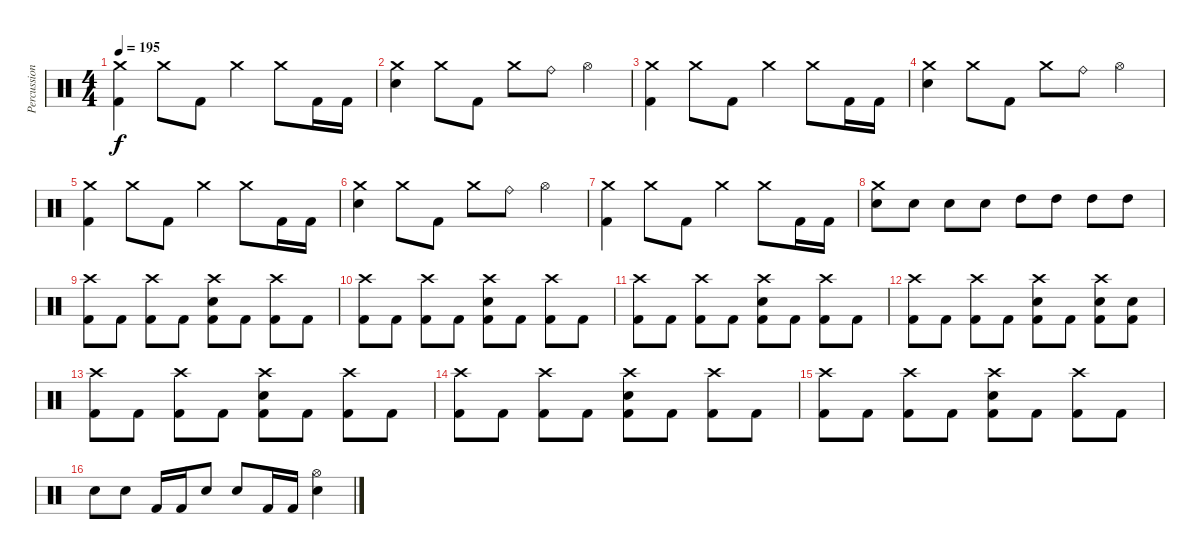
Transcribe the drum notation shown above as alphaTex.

\track ("Percussion" "Percussion") {instrument percussion}
\staff {score}
\articulation defaults
\ts (4 4)
\tempo 195
\clef neutral
\ks c
("Crash medium (hit)" "Kick (hit) 2").4{dy f} "Crash medium (hit)".8 "Kick (hit) 2".8 "Crash medium (hit)".4 "Crash medium (hit)".8 "Kick (hit) 2".16 "Kick (hit) 2".16 |
("Crash medium (hit)" "Electric Snare (hit)").4 "Crash medium (hit)".8 "Kick (hit) 2".8 "Crash medium (hit)".8 "Ride (bell)".8 "Hi-Hat (open)".4 |
("Crash medium (hit)" "Kick (hit) 2").4 "Crash medium (hit)".8 "Kick (hit) 2".8 "Crash medium (hit)".4 "Crash medium (hit)".8 "Kick (hit) 2".16 "Kick (hit) 2".16 |
("Crash medium (hit)" "Electric Snare (hit)").4 "Crash medium (hit)".8 "Kick (hit) 2".8 "Crash medium (hit)".8 "Ride (bell)".8 "Hi-Hat (open)".4 |
("Crash medium (hit)" "Kick (hit) 2").4 "Crash medium (hit)".8 "Kick (hit) 2".8 "Crash medium (hit)".4 "Crash medium (hit)".8 "Kick (hit) 2".16 "Kick (hit) 2".16 |
("Crash medium (hit)" "Electric Snare (hit)").4 "Crash medium (hit)".8 "Kick (hit) 2".8 "Crash medium (hit)".8 "Ride (bell)".8 "Hi-Hat (open)".4 |
("Crash medium (hit)" "Kick (hit) 2").4 "Crash medium (hit)".8 "Kick (hit) 2".8 "Crash medium (hit)".4 "Crash medium (hit)".8 "Kick (hit) 2".16 "Kick (hit) 2".16 |
("Crash medium (hit)" "Electric Snare (hit)").8 "Electric Snare (hit)".8 "Electric Snare (hit)".8 "Electric Snare (hit)".8 "High Tom (hit)".8 "High Tom (hit)".8 "High Tom (hit)".8 "High Tom (hit)".8 |
("Crash high (hit)" "Kick (hit) 2").8 "Kick (hit) 2".8 ("Crash high (hit)" "Kick (hit) 2").8 "Kick (hit) 2".8 ("Crash high (hit)" "Electric Snare (hit)" "Kick (hit) 2").8 "Kick (hit) 2".8 ("Crash high (hit)" "Kick (hit) 2").8 "Kick (hit) 2".8 |
("Crash high (hit)" "Kick (hit) 2").8 "Kick (hit) 2".8 ("Crash high (hit)" "Kick (hit) 2").8 "Kick (hit) 2".8 ("Crash high (hit)" "Electric Snare (hit)" "Kick (hit) 2").8 "Kick (hit) 2".8 ("Crash high (hit)" "Kick (hit) 2").8 "Kick (hit) 2".8 |
("Crash high (hit)" "Kick (hit) 2").8 "Kick (hit) 2".8 ("Crash high (hit)" "Kick (hit) 2").8 "Kick (hit) 2".8 ("Crash high (hit)" "Electric Snare (hit)" "Kick (hit) 2").8 "Kick (hit) 2".8 ("Crash high (hit)" "Kick (hit) 2").8 "Kick (hit) 2".8 |
("Crash high (hit)" "Kick (hit) 2").8 "Kick (hit) 2".8 ("Crash high (hit)" "Kick (hit) 2").8 "Kick (hit) 2".8 ("Crash high (hit)" "Electric Snare (hit)" "Kick (hit) 2").8 "Kick (hit) 2".8 ("Crash high (hit)" "Electric Snare (hit)" "Kick (hit) 2").8 ("Electric Snare (hit)" "Kick (hit) 2").8 |
("Crash high (hit)" "Kick (hit) 2").8 "Kick (hit) 2".8 ("Crash high (hit)" "Kick (hit) 2").8 "Kick (hit) 2".8 ("Crash high (hit)" "Electric Snare (hit)" "Kick (hit) 2").8 "Kick (hit) 2".8 ("Crash high (hit)" "Kick (hit) 2").8 "Kick (hit) 2".8 |
("Crash high (hit)" "Kick (hit) 2").8 "Kick (hit) 2".8 ("Crash high (hit)" "Kick (hit) 2").8 "Kick (hit) 2".8 ("Crash high (hit)" "Electric Snare (hit)" "Kick (hit) 2").8 "Kick (hit) 2".8 ("Crash high (hit)" "Kick (hit) 2").8 "Kick (hit) 2".8 |
("Crash high (hit)" "Kick (hit) 2").8 "Kick (hit) 2".8 ("Crash high (hit)" "Kick (hit) 2").8 "Kick (hit) 2".8 ("Crash high (hit)" "Electric Snare (hit)" "Kick (hit) 2").8 "Kick (hit) 2".8 ("Crash high (hit)" "Kick (hit) 2").8 "Kick (hit) 2".8 |
"Electric Snare (hit)".8 "Electric Snare (hit)".8 "Kick (hit) 2".16 "Kick (hit) 2".16 "Electric Snare (hit)".8 "Electric Snare (hit)".8 "Kick (hit) 2".16 "Kick (hit) 2".16 ("Hi-Hat (open)" "Electric Snare (hit)").4
